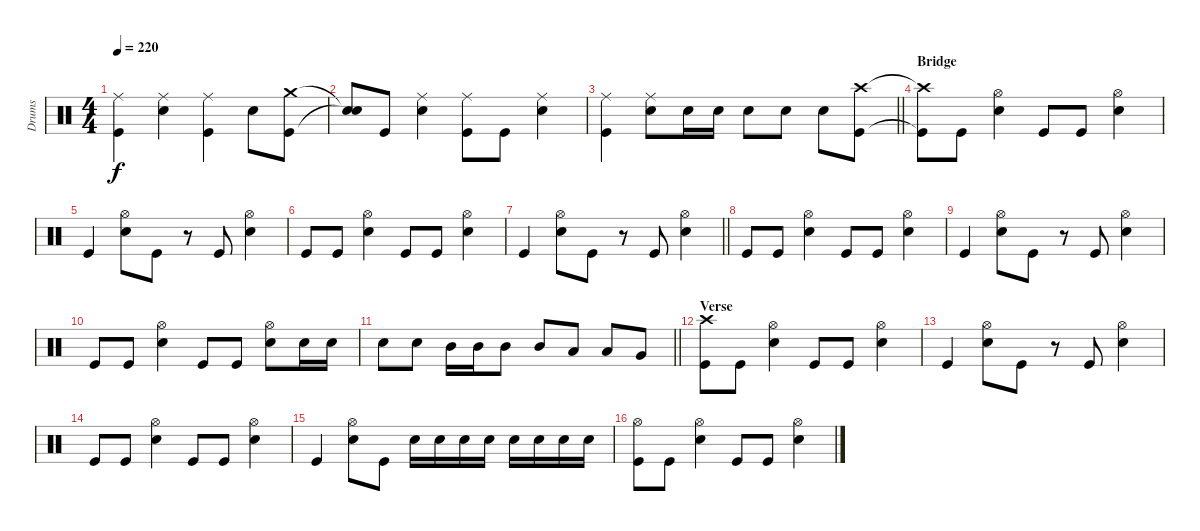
\track ("Drums" "Drums") {instrument percussion}
\staff {score}
\articulation defaults
\ts (4 4)
\tempo 220
\clef neutral
\ks c
("Ride (middle)" "Kick (hit)").4{dy f} ("Ride (middle)" "Snare (hit) 2").4 ("Ride (middle)" "Kick (hit)").4 "Snare (hit) 2".8 ("Crash medium (hit)" "Kick (hit)").8 |
("Snare (hit)"{t} "Snare (hit)"{t}).8 "Kick (hit)".8 ("Ride (middle)" "Snare (hit) 2").4 ("Ride (middle)" "Kick (hit)").8 "Kick (hit)".8 ("Ride (middle)" "Snare (hit) 2").4 |
\barLineRight lightlight
("Ride (middle)" "Kick (hit)").4 ("Ride (middle)" "Snare (hit) 2").8 "Snare (hit) 2".16 "Snare (hit) 2".16 "Snare (hit) 2".8 "Snare (hit) 2".8 "Snare (hit) 2".8 ("Crash high (hit)" "Kick (hit)").8 |
\section ("" "Bridge")
("Crash high (hit)"{t} "Kick (hit)"{t}).8 "Kick (hit)".8 ("Hi-Hat (open)" "Snare (hit) 2").4 "Kick (hit)".8 "Kick (hit)".8 ("Hi-Hat (open)" "Snare (hit) 2").4 |
"Kick (hit)".4 ("Hi-Hat (open)" "Snare (hit) 2").8 "Kick (hit)".8 r.8 "Kick (hit)".8 ("Hi-Hat (open)" "Snare (hit) 2").4 |
"Kick (hit)".8 "Kick (hit)".8 ("Hi-Hat (open)" "Snare (hit) 2").4 "Kick (hit)".8 "Kick (hit)".8 ("Hi-Hat (open)" "Snare (hit) 2").4 |
\barLineRight lightlight "Kick (hit)".4
("Hi-Hat (open)" "Snare (hit) 2").8 "Kick (hit)".8 r.8 "Kick (hit)".8 ("Hi-Hat (open)" "Snare (hit) 2").4 |
"Kick (hit)".8 "Kick (hit)".8 ("Hi-Hat (open)" "Snare (hit) 2").4 "Kick (hit)".8 "Kick (hit)".8 ("Hi-Hat (open)" "Snare (hit) 2").4 |
"Kick (hit)".4 ("Hi-Hat (open)" "Snare (hit) 2").8 "Kick (hit)".8 r.8 "Kick (hit)".8 ("Hi-Hat (open)" "Snare (hit) 2").4 |
"Kick (hit)".8 "Kick (hit)".8 ("Hi-Hat (open)" "Snare (hit) 2").4 "Kick (hit)".8 "Kick (hit)".8 ("Hi-Hat (open)" "Snare (hit) 2").8 "Snare (hit) 2".16 "Snare (hit) 2".16 |
\barLineRight lightlight "Snare (hit) 2".8 "Snare (hit) 2".8 "Mid Tom (hit)".16 "Mid Tom (hit)".16 "Mid Tom (hit)".8 "Mid Tom (hit)".8 "Low Tom (hit)".8 "Low Tom (hit)".8 "Very Low Tom (hit)".8
|
\section ("" "Verse")
("Crash high (hit)" "Kick (hit)").8 "Kick (hit)".8 ("Hi-Hat (open)" "Snare (hit) 2").4 "Kick (hit)".8 "Kick (hit)".8 ("Hi-Hat (open)" "Snare (hit) 2").4 |
"Kick (hit)".4 ("Hi-Hat (open)" "Snare (hit) 2").8 "Kick (hit)".8 r.8 "Kick (hit)".8 ("Hi-Hat (open)" "Snare (hit) 2").4 |
"Kick (hit)".8 "Kick (hit)".8 ("Hi-Hat (open)" "Snare (hit) 2").4 "Kick (hit)".8 "Kick (hit)".8 ("Hi-Hat (open)" "Snare (hit) 2").4 |
"Kick (hit)".4 ("Hi-Hat (open)" "Snare (hit) 2").8 "Kick (hit)".8 "Snare (hit) 2".16 "Snare (hit) 2".16 "Snare (hit) 2".16 "Snare (hit) 2".16 "Snare (hit) 2".16 "Snare (hit) 2".16 "Snare (hit) 2".16 "Snare (hit) 2".16 |
("Hi-Hat (open)" "Kick (hit)").8 "Kick (hit)".8 ("Hi-Hat (open)" "Snare (hit) 2").4 "Kick (hit)".8 "Kick (hit)".8 ("Hi-Hat (open)" "Snare (hit) 2").4
